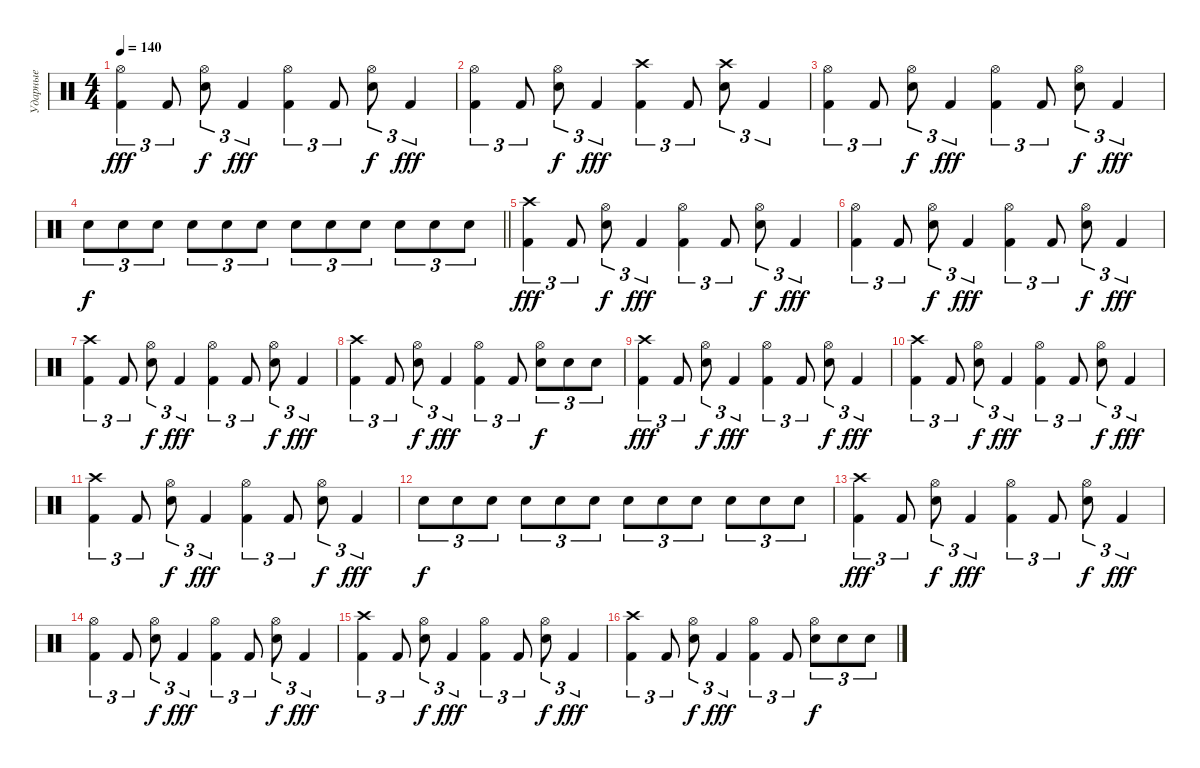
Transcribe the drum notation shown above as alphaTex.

\track ("Ударные" "Ударные") {instrument percussion}
\staff {score}
\articulation defaults
\ts (4 4)
\tempo 140
\clef neutral
\ks c
("Kick (hit) 2" "Hi-Hat (open)").4{tu (3 2) dy fff} "Kick (hit) 2".8{tu (3 2)} ("Snare (hit) 2" "Hi-Hat (open)").8{tu (3 2) dy f} "Kick (hit) 2".4{tu (3 2) dy fff} ("Kick (hit) 2" "Hi-Hat (open)").4{tu (3 2)} "Kick (hit) 2".8{tu (3 2)} ("Snare (hit) 2" "Hi-Hat (open)").8{tu (3 2) dy f} "Kick (hit) 2".4{tu (3 2) dy fff} |
("Kick (hit) 2" "Hi-Hat (open)").4{tu (3 2)} "Kick (hit) 2".8{tu (3 2)} ("Snare (hit) 2" "Hi-Hat (open)").8{tu (3 2) dy f} "Kick (hit) 2".4{tu (3 2) dy fff} ("Kick (hit) 2" "Crash high (hit)").4{tu (3 2)} "Kick (hit) 2".8{tu (3 2)} ("Snare (hit) 2" "Crash high (hit)").8{tu (3 2)} "Kick (hit) 2".4{tu (3 2)} |
("Kick (hit) 2" "Hi-Hat (open)").4{tu (3 2)} "Kick (hit) 2".8{tu (3 2)} ("Snare (hit) 2" "Hi-Hat (open)").8{tu (3 2) dy f} "Kick (hit) 2".4{tu (3 2) dy fff} ("Kick (hit) 2" "Hi-Hat (open)").4{tu (3 2)} "Kick (hit) 2".8{tu (3 2)} ("Snare (hit) 2" "Hi-Hat (open)").8{tu (3 2) dy f} "Kick (hit) 2".4{tu (3 2) dy fff} |
\barLineRight lightlight "Snare (hit) 2".8{tu (3 2) dy f} "Snare (hit) 2".8{tu (3 2)} "Snare (hit) 2".8{tu (3 2)} "Snare (hit) 2".8{tu (3 2)} "Snare (hit) 2".8{tu (3 2)} "Snare (hit) 2".8{tu (3 2)} "Snare (hit) 2".8{tu (3 2)} "Snare (hit) 2".8{tu (3 2)} "Snare (hit) 2".8{tu (3 2)} "Snare (hit) 2".8{tu (3 2)} "Snare (hit) 2".8{tu (3 2)} "Snare (hit) 2".8{tu (3 2)}
|
("Kick (hit) 2" "Crash high (hit)").4{tu (3 2) dy fff} "Kick (hit) 2".8{tu (3 2)} ("Snare (hit) 2" "Hi-Hat (open)").8{tu (3 2) dy f} "Kick (hit) 2".4{tu (3 2) dy fff} ("Kick (hit) 2" "Hi-Hat (open)").4{tu (3 2)} "Kick (hit) 2".8{tu (3 2)} ("Snare (hit) 2" "Hi-Hat (open)").8{tu (3 2) dy f} "Kick (hit) 2".4{tu (3 2) dy fff} |
("Kick (hit) 2" "Hi-Hat (open)").4{tu (3 2)} "Kick (hit) 2".8{tu (3 2)} ("Snare (hit) 2" "Hi-Hat (open)").8{tu (3 2) dy f} "Kick (hit) 2".4{tu (3 2) dy fff} ("Kick (hit) 2" "Hi-Hat (open)").4{tu (3 2)} "Kick (hit) 2".8{tu (3 2)} ("Snare (hit) 2" "Hi-Hat (open)").8{tu (3 2) dy f} "Kick (hit) 2".4{tu (3 2) dy fff} |
("Kick (hit) 2" "Crash high (hit)").4{tu (3 2)} "Kick (hit) 2".8{tu (3 2)} ("Snare (hit) 2" "Hi-Hat (open)").8{tu (3 2) dy f} "Kick (hit) 2".4{tu (3 2) dy fff} ("Kick (hit) 2" "Hi-Hat (open)").4{tu (3 2)} "Kick (hit) 2".8{tu (3 2)} ("Snare (hit) 2" "Hi-Hat (open)").8{tu (3 2) dy f} "Kick (hit) 2".4{tu (3 2) dy fff} |
("Kick (hit) 2" "Crash high (hit)").4{tu (3 2)} "Kick (hit) 2".8{tu (3 2)} ("Snare (hit) 2" "Hi-Hat (open)").8{tu (3 2) dy f} "Kick (hit) 2".4{tu (3 2) dy fff} ("Kick (hit) 2" "Hi-Hat (open)").4{tu (3 2)} "Kick (hit) 2".8{tu (3 2)} ("Snare (hit) 2" "Hi-Hat (open)").8{tu (3 2) dy f} "Snare (hit) 2".8{tu (3 2)} "Snare (hit) 2".8{tu (3 2)} |
("Kick (hit) 2" "Crash high (hit)").4{tu (3 2) dy fff} "Kick (hit) 2".8{tu (3 2)} ("Snare (hit) 2" "Hi-Hat (open)").8{tu (3 2) dy f} "Kick (hit) 2".4{tu (3 2) dy fff} ("Kick (hit) 2" "Hi-Hat (open)").4{tu (3 2)} "Kick (hit) 2".8{tu (3 2)} ("Snare (hit) 2" "Hi-Hat (open)").8{tu (3 2) dy f} "Kick (hit) 2".4{tu (3 2) dy fff} |
("Kick (hit) 2" "Crash high (hit)").4{tu (3 2)} "Kick (hit) 2".8{tu (3 2)} ("Snare (hit) 2" "Hi-Hat (open)").8{tu (3 2) dy f} "Kick (hit) 2".4{tu (3 2) dy fff} ("Kick (hit) 2" "Hi-Hat (open)").4{tu (3 2)} "Kick (hit) 2".8{tu (3 2)} ("Snare (hit) 2" "Hi-Hat (open)").8{tu (3 2) dy f} "Kick (hit) 2".4{tu (3 2) dy fff} |
("Kick (hit) 2" "Crash high (hit)").4{tu (3 2)} "Kick (hit) 2".8{tu (3 2)} ("Snare (hit) 2" "Hi-Hat (open)").8{tu (3 2) dy f} "Kick (hit) 2".4{tu (3 2) dy fff} ("Kick (hit) 2" "Hi-Hat (open)").4{tu (3 2)} "Kick (hit) 2".8{tu (3 2)} ("Snare (hit) 2" "Hi-Hat (open)").8{tu (3 2) dy f} "Kick (hit) 2".4{tu (3 2) dy fff} |
"Snare (hit) 2".8{tu (3 2) dy f} "Snare (hit) 2".8{tu (3 2)} "Snare (hit) 2".8{tu (3 2)} "Snare (hit) 2".8{tu (3 2)} "Snare (hit) 2".8{tu (3 2)} "Snare (hit) 2".8{tu (3 2)} "Snare (hit) 2".8{tu (3 2)} "Snare (hit) 2".8{tu (3 2)} "Snare (hit) 2".8{tu (3 2)} "Snare (hit) 2".8{tu (3 2)} "Snare (hit) 2".8{tu (3 2)} "Snare (hit) 2".8{tu (3 2)} |
("Kick (hit) 2" "Crash high (hit)").4{tu (3 2) dy fff} "Kick (hit) 2".8{tu (3 2)} ("Snare (hit) 2" "Hi-Hat (open)").8{tu (3 2) dy f} "Kick (hit) 2".4{tu (3 2) dy fff} ("Kick (hit) 2" "Hi-Hat (open)").4{tu (3 2)} "Kick (hit) 2".8{tu (3 2)} ("Snare (hit) 2" "Hi-Hat (open)").8{tu (3 2) dy f} "Kick (hit) 2".4{tu (3 2) dy fff} |
("Kick (hit) 2" "Hi-Hat (open)").4{tu (3 2)} "Kick (hit) 2".8{tu (3 2)} ("Snare (hit) 2" "Hi-Hat (open)").8{tu (3 2) dy f} "Kick (hit) 2".4{tu (3 2) dy fff} ("Kick (hit) 2" "Hi-Hat (open)").4{tu (3 2)} "Kick (hit) 2".8{tu (3 2)} ("Snare (hit) 2" "Hi-Hat (open)").8{tu (3 2) dy f} "Kick (hit) 2".4{tu (3 2) dy fff} |
("Kick (hit) 2" "Crash high (hit)").4{tu (3 2)} "Kick (hit) 2".8{tu (3 2)} ("Snare (hit) 2" "Hi-Hat (open)").8{tu (3 2) dy f} "Kick (hit) 2".4{tu (3 2) dy fff} ("Kick (hit) 2" "Hi-Hat (open)").4{tu (3 2)} "Kick (hit) 2".8{tu (3 2)} ("Snare (hit) 2" "Hi-Hat (open)").8{tu (3 2) dy f} "Kick (hit) 2".4{tu (3 2) dy fff} |
("Kick (hit) 2" "Crash high (hit)").4{tu (3 2)} "Kick (hit) 2".8{tu (3 2)} ("Snare (hit) 2" "Hi-Hat (open)").8{tu (3 2) dy f} "Kick (hit) 2".4{tu (3 2) dy fff} ("Kick (hit) 2" "Hi-Hat (open)").4{tu (3 2)} "Kick (hit) 2".8{tu (3 2)} ("Snare (hit) 2" "Hi-Hat (open)").8{tu (3 2) dy f} "Snare (hit) 2".8{tu (3 2)} "Snare (hit) 2".8{tu (3 2)}
